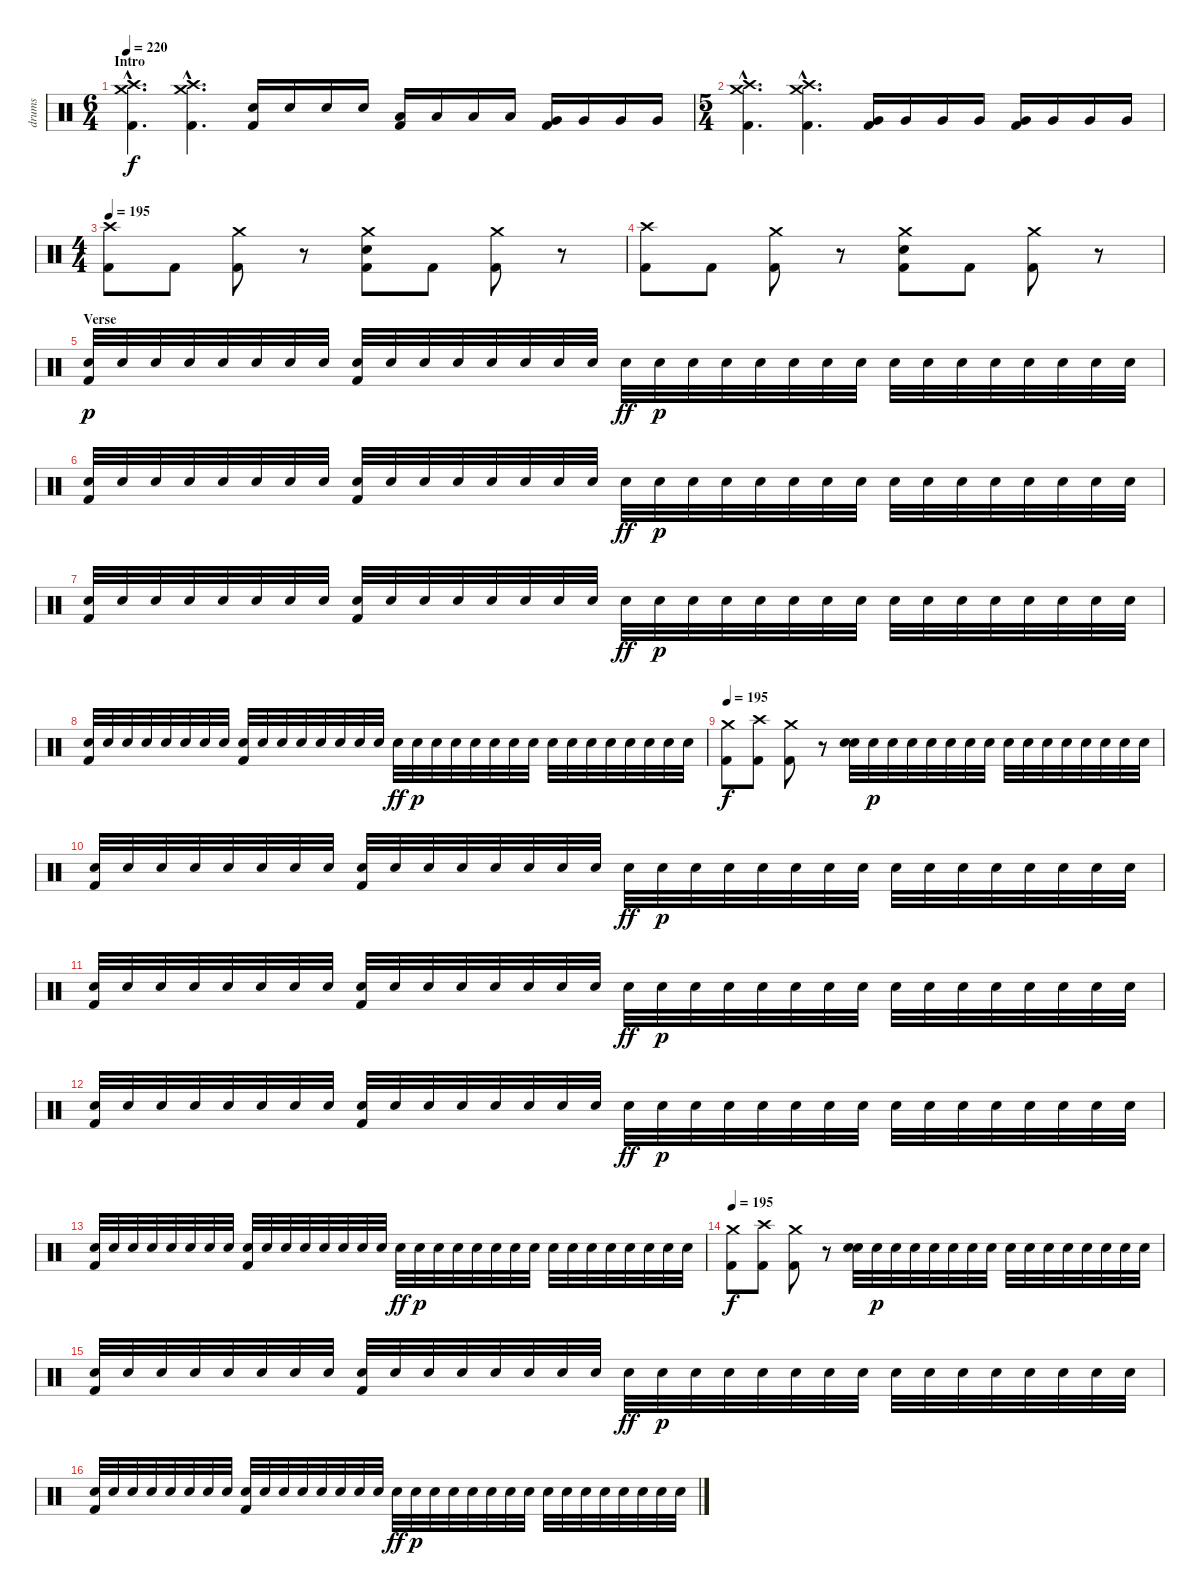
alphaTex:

\track ("drums" "drums") {instrument percussion}
\staff {score}
\articulation defaults
\ts (6 4)
\section ("" "Intro")
\tempo 220
\clef neutral
\ks c
("Crash high (hit)"{hac} "Crash medium (hit)"{hac} "Kick (hit) 2"{hac}).4{d dy f} ("Crash high (hit)"{hac} "Crash medium (hit)"{hac} "Kick (hit) 2"{hac}).4{d} ("Electric Snare (hit)" "Kick (hit) 2").16 "Electric Snare (hit)".16 "Electric Snare (hit)".16 "Electric Snare (hit)".16 ("Low Tom (hit)" "Kick (hit) 2").16 "Low Tom (hit)".16 "Low Tom (hit)".16 "Low Tom (hit)".16 ("Very Low Tom (hit)" "Kick (hit) 2").16 "Very Low Tom (hit)".16 "Very Low Tom (hit)".16 "Very Low Tom (hit)".16 |
\ts (5 4)
("Crash high (hit)"{hac} "Crash medium (hit)"{hac} "Kick (hit) 2"{hac}).4{d} ("Crash high (hit)"{hac} "Crash medium (hit)"{hac} "Kick (hit) 2"{hac}).4{d} ("Very Low Tom (hit)" "Kick (hit) 2").16 "Very Low Tom (hit)".16 "Very Low Tom (hit)".16 "Very Low Tom (hit)".16 ("Very Low Tom (hit)" "Kick (hit) 2").16 "Very Low Tom (hit)".16 "Very Low Tom (hit)".16 "Very Low Tom (hit)".16 |
\ts (4 4)
\tempo 195
("Crash high (hit)" "Kick (hit) 2").8 "Kick (hit) 2".8 ("Crash medium (hit)" "Kick (hit) 2").8 r.8 ("Crash medium (hit)" "Electric Snare (hit)" "Kick (hit) 2").8 "Kick (hit) 2".8 ("Crash medium (hit)" "Kick (hit) 2").8 r.8 |
("Crash high (hit)" "Kick (hit) 2").8 "Kick (hit) 2".8 ("Crash medium (hit)" "Kick (hit) 2").8 r.8 ("Crash medium (hit)" "Electric Snare (hit)" "Kick (hit) 2").8 "Kick (hit) 2".8 ("Crash medium (hit)" "Kick (hit) 2").8 r.8 |
\section ("" "Verse")
("Electric Snare (hit)" "Kick (hit) 2").32{dy p} "Electric Snare (hit)".32 "Electric Snare (hit)".32 "Electric Snare (hit)".32 "Electric Snare (hit)".32 "Electric Snare (hit)".32 "Electric Snare (hit)".32 "Electric Snare (hit)".32 ("Electric Snare (hit)" "Kick (hit) 2").32 "Electric Snare (hit)".32 "Electric Snare (hit)".32 "Electric Snare (hit)".32 "Electric Snare (hit)".32 "Electric Snare (hit)".32 "Electric Snare (hit)".32 "Electric Snare (hit)".32 "Electric Snare (hit)".32{dy ff} "Electric Snare (hit)".32{dy p} "Electric Snare (hit)".32 "Electric Snare (hit)".32 "Electric Snare (hit)".32 "Electric Snare (hit)".32 "Electric Snare (hit)".32 "Electric Snare (hit)".32 "Electric Snare (hit)".32 "Electric Snare (hit)".32 "Electric Snare (hit)".32 "Electric Snare (hit)".32 "Electric Snare (hit)".32 "Electric Snare (hit)".32 "Electric Snare (hit)".32 "Electric Snare (hit)".32 |
("Electric Snare (hit)" "Kick (hit) 2").32 "Electric Snare (hit)".32 "Electric Snare (hit)".32 "Electric Snare (hit)".32 "Electric Snare (hit)".32 "Electric Snare (hit)".32 "Electric Snare (hit)".32 "Electric Snare (hit)".32 ("Electric Snare (hit)" "Kick (hit) 2").32 "Electric Snare (hit)".32 "Electric Snare (hit)".32 "Electric Snare (hit)".32 "Electric Snare (hit)".32 "Electric Snare (hit)".32 "Electric Snare (hit)".32 "Electric Snare (hit)".32 "Electric Snare (hit)".32{dy ff} "Electric Snare (hit)".32{dy p} "Electric Snare (hit)".32 "Electric Snare (hit)".32 "Electric Snare (hit)".32 "Electric Snare (hit)".32 "Electric Snare (hit)".32 "Electric Snare (hit)".32 "Electric Snare (hit)".32 "Electric Snare (hit)".32 "Electric Snare (hit)".32 "Electric Snare (hit)".32 "Electric Snare (hit)".32 "Electric Snare (hit)".32 "Electric Snare (hit)".32 "Electric Snare (hit)".32 |
("Electric Snare (hit)" "Kick (hit) 2").32 "Electric Snare (hit)".32 "Electric Snare (hit)".32 "Electric Snare (hit)".32 "Electric Snare (hit)".32 "Electric Snare (hit)".32 "Electric Snare (hit)".32 "Electric Snare (hit)".32 ("Electric Snare (hit)" "Kick (hit) 2").32 "Electric Snare (hit)".32 "Electric Snare (hit)".32 "Electric Snare (hit)".32 "Electric Snare (hit)".32 "Electric Snare (hit)".32 "Electric Snare (hit)".32 "Electric Snare (hit)".32 "Electric Snare (hit)".32{dy ff} "Electric Snare (hit)".32{dy p} "Electric Snare (hit)".32 "Electric Snare (hit)".32 "Electric Snare (hit)".32 "Electric Snare (hit)".32 "Electric Snare (hit)".32 "Electric Snare (hit)".32 "Electric Snare (hit)".32 "Electric Snare (hit)".32 "Electric Snare (hit)".32 "Electric Snare (hit)".32 "Electric Snare (hit)".32 "Electric Snare (hit)".32 "Electric Snare (hit)".32 "Electric Snare (hit)".32 |
("Electric Snare (hit)" "Kick (hit) 2").32 "Electric Snare (hit)".32 "Electric Snare (hit)".32 "Electric Snare (hit)".32 "Electric Snare (hit)".32 "Electric Snare (hit)".32 "Electric Snare (hit)".32 "Electric Snare (hit)".32 ("Electric Snare (hit)" "Kick (hit) 2").32 "Electric Snare (hit)".32 "Electric Snare (hit)".32 "Electric Snare (hit)".32 "Electric Snare (hit)".32 "Electric Snare (hit)".32 "Electric Snare (hit)".32 "Electric Snare (hit)".32 "Electric Snare (hit)".32{dy ff} "Electric Snare (hit)".32{dy p} "Electric Snare (hit)".32 "Electric Snare (hit)".32 "Electric Snare (hit)".32 "Electric Snare (hit)".32 "Electric Snare (hit)".32 "Electric Snare (hit)".32 "Electric Snare (hit)".32 "Electric Snare (hit)".32 "Electric Snare (hit)".32 "Electric Snare (hit)".32 "Electric Snare (hit)".32 "Electric Snare (hit)".32 "Electric Snare (hit)".32 "Electric Snare (hit)".32 |
\tempo 195
("Crash medium (hit)" "Kick (hit) 2").8{dy f} ("Crash high (hit)" "Kick (hit) 2").8 ("Crash medium (hit)" "Kick (hit) 2").8 r.8 ("Electric Snare (hit)" "Electric Snare (hit)").32 "Electric Snare (hit)".32{dy p} "Electric Snare (hit)".32 "Electric Snare (hit)".32 "Electric Snare (hit)".32 "Electric Snare (hit)".32 "Electric Snare (hit)".32 "Electric Snare (hit)".32 "Electric Snare (hit)".32 "Electric Snare (hit)".32 "Electric Snare (hit)".32 "Electric Snare (hit)".32 "Electric Snare (hit)".32 "Electric Snare (hit)".32 "Electric Snare (hit)".32 "Electric Snare (hit)".32 |
("Electric Snare (hit)" "Kick (hit) 2").32 "Electric Snare (hit)".32 "Electric Snare (hit)".32 "Electric Snare (hit)".32 "Electric Snare (hit)".32 "Electric Snare (hit)".32 "Electric Snare (hit)".32 "Electric Snare (hit)".32 ("Electric Snare (hit)" "Kick (hit) 2").32 "Electric Snare (hit)".32 "Electric Snare (hit)".32 "Electric Snare (hit)".32 "Electric Snare (hit)".32 "Electric Snare (hit)".32 "Electric Snare (hit)".32 "Electric Snare (hit)".32 "Electric Snare (hit)".32{dy ff} "Electric Snare (hit)".32{dy p} "Electric Snare (hit)".32 "Electric Snare (hit)".32 "Electric Snare (hit)".32 "Electric Snare (hit)".32 "Electric Snare (hit)".32 "Electric Snare (hit)".32 "Electric Snare (hit)".32 "Electric Snare (hit)".32 "Electric Snare (hit)".32 "Electric Snare (hit)".32 "Electric Snare (hit)".32 "Electric Snare (hit)".32 "Electric Snare (hit)".32 "Electric Snare (hit)".32 |
("Electric Snare (hit)" "Kick (hit) 2").32 "Electric Snare (hit)".32 "Electric Snare (hit)".32 "Electric Snare (hit)".32 "Electric Snare (hit)".32 "Electric Snare (hit)".32 "Electric Snare (hit)".32 "Electric Snare (hit)".32 ("Electric Snare (hit)" "Kick (hit) 2").32 "Electric Snare (hit)".32 "Electric Snare (hit)".32 "Electric Snare (hit)".32 "Electric Snare (hit)".32 "Electric Snare (hit)".32 "Electric Snare (hit)".32 "Electric Snare (hit)".32 "Electric Snare (hit)".32{dy ff} "Electric Snare (hit)".32{dy p} "Electric Snare (hit)".32 "Electric Snare (hit)".32 "Electric Snare (hit)".32 "Electric Snare (hit)".32 "Electric Snare (hit)".32 "Electric Snare (hit)".32 "Electric Snare (hit)".32 "Electric Snare (hit)".32 "Electric Snare (hit)".32 "Electric Snare (hit)".32 "Electric Snare (hit)".32 "Electric Snare (hit)".32 "Electric Snare (hit)".32 "Electric Snare (hit)".32 |
("Electric Snare (hit)" "Kick (hit) 2").32 "Electric Snare (hit)".32 "Electric Snare (hit)".32 "Electric Snare (hit)".32 "Electric Snare (hit)".32 "Electric Snare (hit)".32 "Electric Snare (hit)".32 "Electric Snare (hit)".32 ("Electric Snare (hit)" "Kick (hit) 2").32 "Electric Snare (hit)".32 "Electric Snare (hit)".32 "Electric Snare (hit)".32 "Electric Snare (hit)".32 "Electric Snare (hit)".32 "Electric Snare (hit)".32 "Electric Snare (hit)".32 "Electric Snare (hit)".32{dy ff} "Electric Snare (hit)".32{dy p} "Electric Snare (hit)".32 "Electric Snare (hit)".32 "Electric Snare (hit)".32 "Electric Snare (hit)".32 "Electric Snare (hit)".32 "Electric Snare (hit)".32 "Electric Snare (hit)".32 "Electric Snare (hit)".32 "Electric Snare (hit)".32 "Electric Snare (hit)".32 "Electric Snare (hit)".32 "Electric Snare (hit)".32 "Electric Snare (hit)".32 "Electric Snare (hit)".32 |
("Electric Snare (hit)" "Kick (hit) 2").32 "Electric Snare (hit)".32 "Electric Snare (hit)".32 "Electric Snare (hit)".32 "Electric Snare (hit)".32 "Electric Snare (hit)".32 "Electric Snare (hit)".32 "Electric Snare (hit)".32 ("Electric Snare (hit)" "Kick (hit) 2").32 "Electric Snare (hit)".32 "Electric Snare (hit)".32 "Electric Snare (hit)".32 "Electric Snare (hit)".32 "Electric Snare (hit)".32 "Electric Snare (hit)".32 "Electric Snare (hit)".32 "Electric Snare (hit)".32{dy ff} "Electric Snare (hit)".32{dy p} "Electric Snare (hit)".32 "Electric Snare (hit)".32 "Electric Snare (hit)".32 "Electric Snare (hit)".32 "Electric Snare (hit)".32 "Electric Snare (hit)".32 "Electric Snare (hit)".32 "Electric Snare (hit)".32 "Electric Snare (hit)".32 "Electric Snare (hit)".32 "Electric Snare (hit)".32 "Electric Snare (hit)".32 "Electric Snare (hit)".32 "Electric Snare (hit)".32 |
\tempo 195
("Crash medium (hit)" "Kick (hit) 2").8{dy f} ("Crash high (hit)" "Kick (hit) 2").8 ("Crash medium (hit)" "Kick (hit) 2").8 r.8 ("Electric Snare (hit)" "Electric Snare (hit)").32 "Electric Snare (hit)".32{dy p} "Electric Snare (hit)".32 "Electric Snare (hit)".32 "Electric Snare (hit)".32 "Electric Snare (hit)".32 "Electric Snare (hit)".32 "Electric Snare (hit)".32 "Electric Snare (hit)".32 "Electric Snare (hit)".32 "Electric Snare (hit)".32 "Electric Snare (hit)".32 "Electric Snare (hit)".32 "Electric Snare (hit)".32 "Electric Snare (hit)".32 "Electric Snare (hit)".32 |
("Electric Snare (hit)" "Kick (hit) 2").32 "Electric Snare (hit)".32 "Electric Snare (hit)".32 "Electric Snare (hit)".32 "Electric Snare (hit)".32 "Electric Snare (hit)".32 "Electric Snare (hit)".32 "Electric Snare (hit)".32 ("Electric Snare (hit)" "Kick (hit) 2").32 "Electric Snare (hit)".32 "Electric Snare (hit)".32 "Electric Snare (hit)".32 "Electric Snare (hit)".32 "Electric Snare (hit)".32 "Electric Snare (hit)".32 "Electric Snare (hit)".32 "Electric Snare (hit)".32{dy ff} "Electric Snare (hit)".32{dy p} "Electric Snare (hit)".32 "Electric Snare (hit)".32 "Electric Snare (hit)".32 "Electric Snare (hit)".32 "Electric Snare (hit)".32 "Electric Snare (hit)".32 "Electric Snare (hit)".32 "Electric Snare (hit)".32 "Electric Snare (hit)".32 "Electric Snare (hit)".32 "Electric Snare (hit)".32 "Electric Snare (hit)".32 "Electric Snare (hit)".32 "Electric Snare (hit)".32 |
("Electric Snare (hit)" "Kick (hit) 2").32 "Electric Snare (hit)".32 "Electric Snare (hit)".32 "Electric Snare (hit)".32 "Electric Snare (hit)".32 "Electric Snare (hit)".32 "Electric Snare (hit)".32 "Electric Snare (hit)".32 ("Electric Snare (hit)" "Kick (hit) 2").32 "Electric Snare (hit)".32 "Electric Snare (hit)".32 "Electric Snare (hit)".32 "Electric Snare (hit)".32 "Electric Snare (hit)".32 "Electric Snare (hit)".32 "Electric Snare (hit)".32 "Electric Snare (hit)".32{dy ff} "Electric Snare (hit)".32{dy p} "Electric Snare (hit)".32 "Electric Snare (hit)".32 "Electric Snare (hit)".32 "Electric Snare (hit)".32 "Electric Snare (hit)".32 "Electric Snare (hit)".32 "Electric Snare (hit)".32 "Electric Snare (hit)".32 "Electric Snare (hit)".32 "Electric Snare (hit)".32 "Electric Snare (hit)".32 "Electric Snare (hit)".32 "Electric Snare (hit)".32 "Electric Snare (hit)".32
